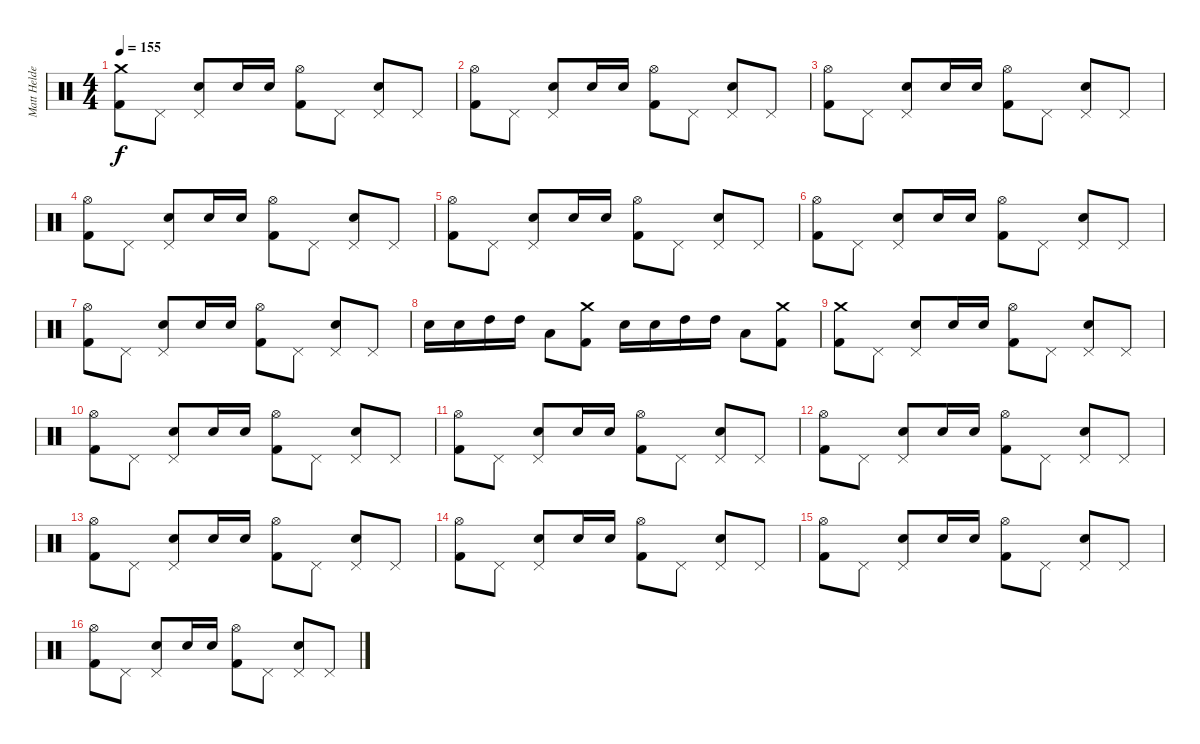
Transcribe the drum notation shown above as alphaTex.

\track ("Matt Helders" "Matt Helde") {instrument percussion}
\staff {score}
\articulation defaults
\ts (4 4)
\tempo 155
\clef neutral
\ks c
("Crash medium (hit)" "Kick (hit) 2").8{dy f} "Pedal Hi-Hat (hit)".8 ("Pedal Hi-Hat (hit)" "Snare (hit) 2").8 "Snare (hit) 2".16 "Snare (hit) 2".16 ("Hi-Hat (open)" "Kick (hit) 2").8 "Pedal Hi-Hat (hit)".8 ("Pedal Hi-Hat (hit)" "Snare (hit) 2").8 "Pedal Hi-Hat (hit)".8 |
("Hi-Hat (open)" "Kick (hit) 2").8 "Pedal Hi-Hat (hit)".8 ("Pedal Hi-Hat (hit)" "Snare (hit) 2").8 "Snare (hit) 2".16 "Snare (hit) 2".16 ("Hi-Hat (open)" "Kick (hit) 2").8 "Pedal Hi-Hat (hit)".8 ("Pedal Hi-Hat (hit)" "Snare (hit) 2").8 "Pedal Hi-Hat (hit)".8 |
("Hi-Hat (open)" "Kick (hit) 2").8 "Pedal Hi-Hat (hit)".8 ("Pedal Hi-Hat (hit)" "Snare (hit) 2").8 "Snare (hit) 2".16 "Snare (hit) 2".16 ("Hi-Hat (open)" "Kick (hit) 2").8 "Pedal Hi-Hat (hit)".8 ("Pedal Hi-Hat (hit)" "Snare (hit) 2").8 "Pedal Hi-Hat (hit)".8 |
("Hi-Hat (open)" "Kick (hit) 2").8 "Pedal Hi-Hat (hit)".8 ("Pedal Hi-Hat (hit)" "Snare (hit) 2").8 "Snare (hit) 2".16 "Snare (hit) 2".16 ("Hi-Hat (open)" "Kick (hit) 2").8 "Pedal Hi-Hat (hit)".8 ("Pedal Hi-Hat (hit)" "Snare (hit) 2").8 "Pedal Hi-Hat (hit)".8 |
("Hi-Hat (open)" "Kick (hit) 2").8 "Pedal Hi-Hat (hit)".8 ("Pedal Hi-Hat (hit)" "Snare (hit) 2").8 "Snare (hit) 2".16 "Snare (hit) 2".16 ("Hi-Hat (open)" "Kick (hit) 2").8 "Pedal Hi-Hat (hit)".8 ("Pedal Hi-Hat (hit)" "Snare (hit) 2").8 "Pedal Hi-Hat (hit)".8 |
("Hi-Hat (open)" "Kick (hit) 2").8 "Pedal Hi-Hat (hit)".8 ("Pedal Hi-Hat (hit)" "Snare (hit) 2").8 "Snare (hit) 2".16 "Snare (hit) 2".16 ("Hi-Hat (open)" "Kick (hit) 2").8 "Pedal Hi-Hat (hit)".8 ("Pedal Hi-Hat (hit)" "Snare (hit) 2").8 "Pedal Hi-Hat (hit)".8 |
("Hi-Hat (open)" "Kick (hit) 2").8 "Pedal Hi-Hat (hit)".8 ("Pedal Hi-Hat (hit)" "Snare (hit) 2").8 "Snare (hit) 2".16 "Snare (hit) 2".16 ("Hi-Hat (open)" "Kick (hit) 2").8 "Pedal Hi-Hat (hit)".8 ("Pedal Hi-Hat (hit)" "Snare (hit) 2").8 "Pedal Hi-Hat (hit)".8 |
"Snare (hit) 2".16 "Snare (hit) 2".16 "High Tom (hit)".16 "High Tom (hit)".16 "Low Tom (hit)".8 ("Crash medium (hit)" "Kick (hit) 2").8 "Snare (hit) 2".16 "Snare (hit) 2".16 "High Tom (hit)".16 "High Tom (hit)".16 "Low Tom (hit)".8 ("Crash medium (hit)" "Kick (hit) 2").8 |
("Crash medium (hit)" "Kick (hit) 2").8 "Pedal Hi-Hat (hit)".8 ("Pedal Hi-Hat (hit)" "Snare (hit) 2").8 "Snare (hit) 2".16 "Snare (hit) 2".16 ("Hi-Hat (open)" "Kick (hit) 2").8 "Pedal Hi-Hat (hit)".8 ("Pedal Hi-Hat (hit)" "Snare (hit) 2").8 "Pedal Hi-Hat (hit)".8 |
("Hi-Hat (open)" "Kick (hit) 2").8 "Pedal Hi-Hat (hit)".8 ("Pedal Hi-Hat (hit)" "Snare (hit) 2").8 "Snare (hit) 2".16 "Snare (hit) 2".16 ("Hi-Hat (open)" "Kick (hit) 2").8 "Pedal Hi-Hat (hit)".8 ("Pedal Hi-Hat (hit)" "Snare (hit) 2").8 "Pedal Hi-Hat (hit)".8 |
("Hi-Hat (open)" "Kick (hit) 2").8 "Pedal Hi-Hat (hit)".8 ("Pedal Hi-Hat (hit)" "Snare (hit) 2").8 "Snare (hit) 2".16 "Snare (hit) 2".16 ("Hi-Hat (open)" "Kick (hit) 2").8 "Pedal Hi-Hat (hit)".8 ("Pedal Hi-Hat (hit)" "Snare (hit) 2").8 "Pedal Hi-Hat (hit)".8 |
("Hi-Hat (open)" "Kick (hit) 2").8 "Pedal Hi-Hat (hit)".8 ("Pedal Hi-Hat (hit)" "Snare (hit) 2").8 "Snare (hit) 2".16 "Snare (hit) 2".16 ("Hi-Hat (open)" "Kick (hit) 2").8 "Pedal Hi-Hat (hit)".8 ("Pedal Hi-Hat (hit)" "Snare (hit) 2").8 "Pedal Hi-Hat (hit)".8 |
("Hi-Hat (open)" "Kick (hit) 2").8 "Pedal Hi-Hat (hit)".8 ("Pedal Hi-Hat (hit)" "Snare (hit) 2").8 "Snare (hit) 2".16 "Snare (hit) 2".16 ("Hi-Hat (open)" "Kick (hit) 2").8 "Pedal Hi-Hat (hit)".8 ("Pedal Hi-Hat (hit)" "Snare (hit) 2").8 "Pedal Hi-Hat (hit)".8 |
("Hi-Hat (open)" "Kick (hit) 2").8 "Pedal Hi-Hat (hit)".8 ("Pedal Hi-Hat (hit)" "Snare (hit) 2").8 "Snare (hit) 2".16 "Snare (hit) 2".16 ("Hi-Hat (open)" "Kick (hit) 2").8 "Pedal Hi-Hat (hit)".8 ("Pedal Hi-Hat (hit)" "Snare (hit) 2").8 "Pedal Hi-Hat (hit)".8 |
("Hi-Hat (open)" "Kick (hit) 2").8 "Pedal Hi-Hat (hit)".8 ("Pedal Hi-Hat (hit)" "Snare (hit) 2").8 "Snare (hit) 2".16 "Snare (hit) 2".16 ("Hi-Hat (open)" "Kick (hit) 2").8 "Pedal Hi-Hat (hit)".8 ("Pedal Hi-Hat (hit)" "Snare (hit) 2").8 "Pedal Hi-Hat (hit)".8 |
("Hi-Hat (open)" "Kick (hit) 2").8 "Pedal Hi-Hat (hit)".8 ("Pedal Hi-Hat (hit)" "Snare (hit) 2").8 "Snare (hit) 2".16 "Snare (hit) 2".16 ("Hi-Hat (open)" "Kick (hit) 2").8 "Pedal Hi-Hat (hit)".8 ("Pedal Hi-Hat (hit)" "Snare (hit) 2").8 "Pedal Hi-Hat (hit)".8
